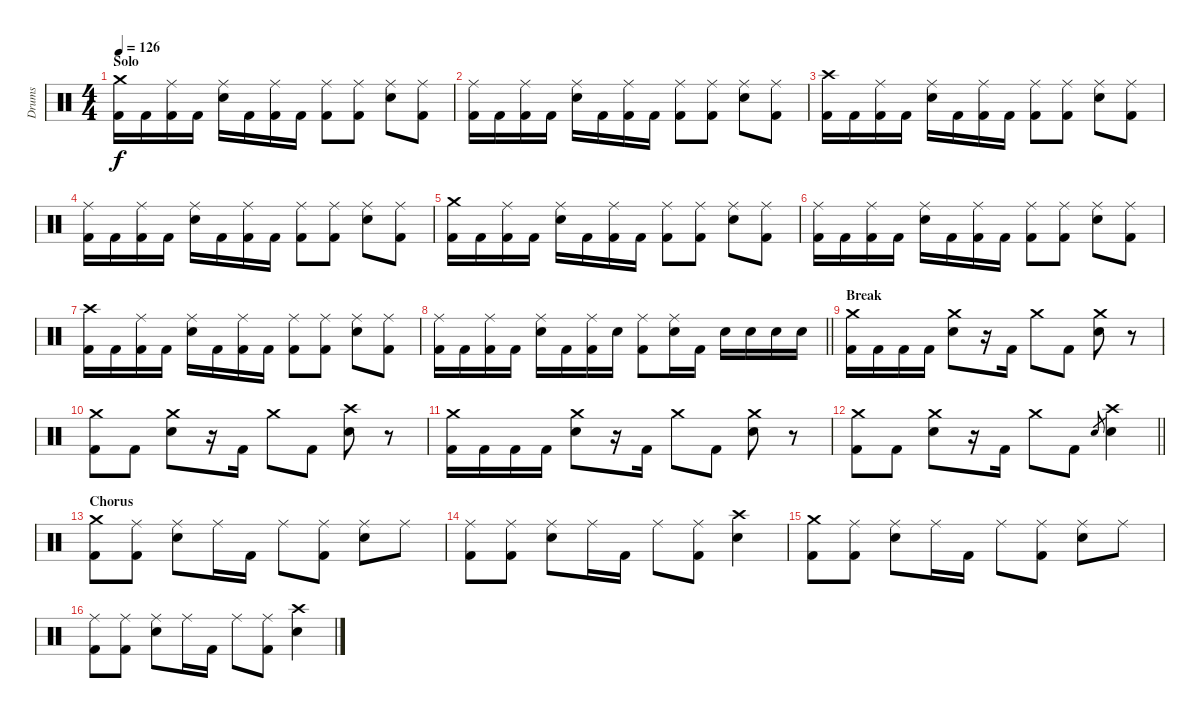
\track ("Drums" "Drums") {instrument percussion}
\staff {score}
\articulation defaults
\ts (4 4)
\section ("" "Solo")
\tempo 126
\clef neutral
\ks c
("Crash medium (hit)" "Kick (hit) 2").16{dy f} "Kick (hit) 2".16 ("Ride (middle)" "Kick (hit) 2").16 "Kick (hit) 2".16 ("Ride (middle)" "Electric Snare (hit)").16 "Kick (hit) 2".16 ("Ride (middle)" "Kick (hit) 2").16 "Kick (hit) 2".16 ("Ride (middle)" "Kick (hit) 2").8 ("Ride (middle)" "Kick (hit) 2").8 ("Ride (middle)" "Electric Snare (hit)").8 ("Ride (middle)" "Kick (hit) 2").8 |
("Ride (middle)" "Kick (hit) 2").16 "Kick (hit) 2".16 ("Ride (middle)" "Kick (hit) 2").16 "Kick (hit) 2".16 ("Ride (middle)" "Electric Snare (hit)").16 "Kick (hit) 2".16 ("Ride (middle)" "Kick (hit) 2").16 "Kick (hit) 2".16 ("Ride (middle)" "Kick (hit) 2").8 ("Ride (middle)" "Kick (hit) 2").8 ("Ride (middle)" "Electric Snare (hit)").8 ("Ride (middle)" "Kick (hit) 2").8 |
("Crash high (hit)" "Kick (hit) 2").16 "Kick (hit) 2".16 ("Ride (middle)" "Kick (hit) 2").16 "Kick (hit) 2".16 ("Ride (middle)" "Electric Snare (hit)").16 "Kick (hit) 2".16 ("Ride (middle)" "Kick (hit) 2").16 "Kick (hit) 2".16 ("Ride (middle)" "Kick (hit) 2").8 ("Ride (middle)" "Kick (hit) 2").8 ("Ride (middle)" "Electric Snare (hit)").8 ("Ride (middle)" "Kick (hit) 2").8 |
("Ride (middle)" "Kick (hit) 2").16 "Kick (hit) 2".16 ("Ride (middle)" "Kick (hit) 2").16 "Kick (hit) 2".16 ("Ride (middle)" "Electric Snare (hit)").16 "Kick (hit) 2".16 ("Ride (middle)" "Kick (hit) 2").16 "Kick (hit) 2".16 ("Ride (middle)" "Kick (hit) 2").8 ("Ride (middle)" "Kick (hit) 2").8 ("Ride (middle)" "Electric Snare (hit)").8 ("Ride (middle)" "Kick (hit) 2").8 |
("Crash medium (hit)" "Kick (hit) 2").16 "Kick (hit) 2".16 ("Ride (middle)" "Kick (hit) 2").16 "Kick (hit) 2".16 ("Ride (middle)" "Electric Snare (hit)").16 "Kick (hit) 2".16 ("Ride (middle)" "Kick (hit) 2").16 "Kick (hit) 2".16 ("Ride (middle)" "Kick (hit) 2").8 ("Ride (middle)" "Kick (hit) 2").8 ("Ride (middle)" "Electric Snare (hit)").8 ("Ride (middle)" "Kick (hit) 2").8 |
("Ride (middle)" "Kick (hit) 2").16 "Kick (hit) 2".16 ("Ride (middle)" "Kick (hit) 2").16 "Kick (hit) 2".16 ("Ride (middle)" "Electric Snare (hit)").16 "Kick (hit) 2".16 ("Ride (middle)" "Kick (hit) 2").16 "Kick (hit) 2".16 ("Ride (middle)" "Kick (hit) 2").8 ("Ride (middle)" "Kick (hit) 2").8 ("Ride (middle)" "Electric Snare (hit)").8 ("Ride (middle)" "Kick (hit) 2").8 |
("Crash high (hit)" "Kick (hit) 2").16 "Kick (hit) 2".16 ("Ride (middle)" "Kick (hit) 2").16 "Kick (hit) 2".16 ("Ride (middle)" "Electric Snare (hit)").16 "Kick (hit) 2".16 ("Ride (middle)" "Kick (hit) 2").16 "Kick (hit) 2".16 ("Ride (middle)" "Kick (hit) 2").8 ("Ride (middle)" "Kick (hit) 2").8 ("Ride (middle)" "Electric Snare (hit)").8 ("Ride (middle)" "Kick (hit) 2").8 |
\barLineRight lightlight
("Ride (middle)" "Kick (hit) 2").16 "Kick (hit) 2".16 ("Ride (middle)" "Kick (hit) 2").16 "Kick (hit) 2".16 ("Ride (middle)" "Electric Snare (hit)").16 "Kick (hit) 2".16 ("Ride (middle)" "Kick (hit) 2").16 "Electric Snare (hit)".16 ("Ride (middle)" "Kick (hit) 2").8 ("Ride (middle)" "Electric Snare (hit)").16 "Kick (hit) 2".16 "Electric Snare (hit)".16 "Electric Snare (hit)".16 "Electric Snare (hit)".16 "Electric Snare (hit)".16 |
\section ("" "Break")
("Crash medium (hit)" "Kick (hit) 2").16 "Kick (hit) 2".16 "Kick (hit) 2".16 "Kick (hit) 2".16 ("Crash medium (hit)" "Electric Snare (hit)").8 r.16 "Kick (hit) 2".16 "Crash medium (hit)".8 "Kick (hit) 2".8 ("Crash medium (hit)" "Electric Snare (hit)").8 r.8 |
("Crash medium (hit)" "Kick (hit) 2").8 "Kick (hit) 2".8 ("Crash medium (hit)" "Electric Snare (hit)").8 r.16 "Kick (hit) 2".16 "Crash medium (hit)".8 "Kick (hit) 2".8 ("Crash high (hit)" "Electric Snare (hit)").8 r.8 |
("Crash medium (hit)" "Kick (hit) 2").16 "Kick (hit) 2".16 "Kick (hit) 2".16 "Kick (hit) 2".16 ("Crash medium (hit)" "Electric Snare (hit)").8 r.16 "Kick (hit) 2".16 "Crash medium (hit)".8 "Kick (hit) 2".8 ("Crash medium (hit)" "Electric Snare (hit)").8 r.8 |
\barLineRight lightlight
("Crash medium (hit)" "Kick (hit) 2").8 "Kick (hit) 2".8 ("Crash medium (hit)" "Electric Snare (hit)").8 r.16 "Kick (hit) 2".16 "Crash medium (hit)".8 "Kick (hit) 2".8 "Electric Snare (hit)".8{gr} ("Crash high (hit)" "Electric Snare (hit)").4 |
\section ("" "Chorus")
("Crash medium (hit)" "Kick (hit) 2").8 ("Ride (middle)" "Kick (hit) 2").8 ("Ride (middle)" "Electric Snare (hit)").8 "Ride (middle)".16 "Kick (hit) 2".16 "Ride (middle)".8 ("Ride (middle)" "Kick (hit) 2").8 ("Ride (middle)" "Electric Snare (hit)").8 "Ride (middle)".8 |
("Ride (middle)" "Kick (hit) 2").8 ("Ride (middle)" "Kick (hit) 2").8 ("Ride (middle)" "Electric Snare (hit)").8 "Ride (middle)".16 "Kick (hit) 2".16 "Ride (middle)".8 ("Ride (middle)" "Kick (hit) 2").8 ("Crash high (hit)" "Electric Snare (hit)").4 |
("Crash medium (hit)" "Kick (hit) 2").8 ("Ride (middle)" "Kick (hit) 2").8 ("Ride (middle)" "Electric Snare (hit)").8 "Ride (middle)".16 "Kick (hit) 2".16 "Ride (middle)".8 ("Ride (middle)" "Kick (hit) 2").8 ("Ride (middle)" "Electric Snare (hit)").8 "Ride (middle)".8 |
("Ride (middle)" "Kick (hit) 2").8 ("Ride (middle)" "Kick (hit) 2").8 ("Ride (middle)" "Electric Snare (hit)").8 "Ride (middle)".16 "Kick (hit) 2".16 "Ride (middle)".8 ("Ride (middle)" "Kick (hit) 2").8 ("Crash high (hit)" "Electric Snare (hit)").4
